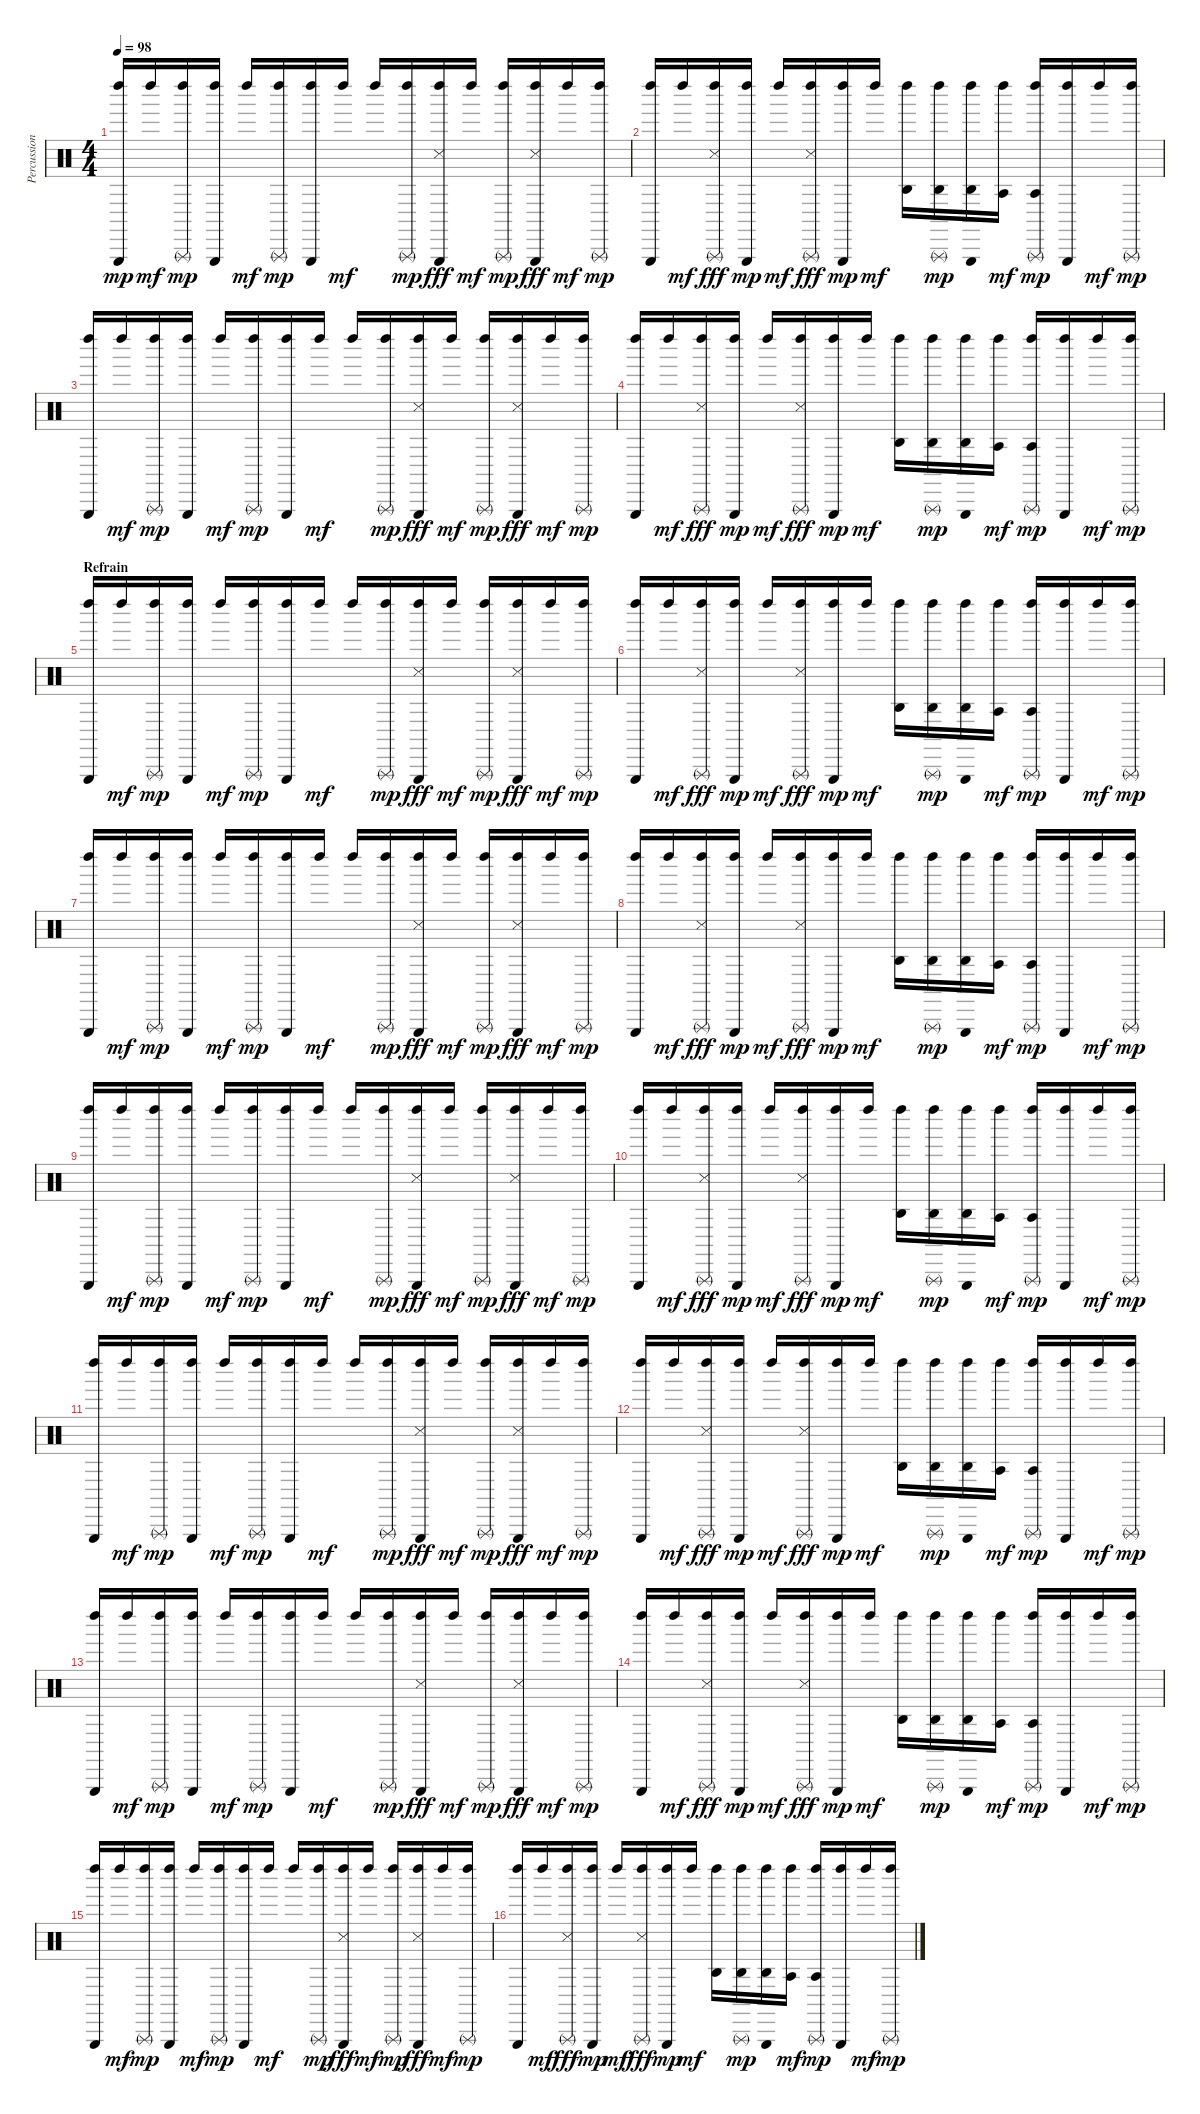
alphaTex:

\track ("Percussions" "Percussion") {instrument percussion}
\staff {score}
\articulation defaults
\ts (4 4)
\tempo 98
\clef neutral
\ks c
("Left Maraca (hit)" "Triangle (hit)").16{dy mp} "Left Maraca (hit)".16{dy mf} ("Left Maraca (hit)" "Triangle (rnute)").16{dy mp} ("Left Maraca (hit)" "Triangle (hit)").16 "Left Maraca (hit)".16{dy mf} ("Left Maraca (hit)" "Triangle (rnute)").16{dy mp} ("Left Maraca (hit)" "Triangle (hit)").16 "Left Maraca (hit)".16{dy mf} "Left Maraca (hit)".16 ("Left Maraca (hit)" "Triangle (rnute)").16{dy mp} ("Left Maraca (hit)" "Triangle (hit)" "Snare (side stick) 3").16{dy fff} "Left Maraca (hit)".16{dy mf} ("Left Maraca (hit)" "Triangle (rnute)").16{dy mp} ("Left Maraca (hit)" "Triangle (hit)" "Snare (side stick) 3").16{dy fff} "Left Maraca (hit)".16{dy mf} ("Left Maraca (hit)" "Triangle (rnute)").16{dy mp} |
("Left Maraca (hit)" "Triangle (hit)").16 "Left Maraca (hit)".16{dy mf} ("Left Maraca (hit)" "Triangle (rnute)" "Snare (side stick) 3").16{dy fff} ("Left Maraca (hit)" "Triangle (hit)").16{dy mp} "Left Maraca (hit)".16{dy mf} ("Left Maraca (hit)" "Triangle (rnute)" "Snare (side stick) 3").16{dy fff} ("Left Maraca (hit)" "Triangle (hit)").16{dy mp} "Left Maraca (hit)".16{dy mf} ("Left Maraca (hit)" "Agogo high (hit)").16 ("Left Maraca (hit)" "Triangle (rnute)" "Agogo high (hit)").16{dy mp} ("Left Maraca (hit)" "Triangle (hit)" "Agogo high (hit)").16 ("Left Maraca (hit)" "Agogo tow (hit)").16{dy mf} ("Left Maraca (hit)" "Triangle (rnute)" "Agogo tow (hit)").16{dy mp} ("Left Maraca (hit)" "Triangle (hit)").16 "Left Maraca (hit)".16{dy mf} ("Left Maraca (hit)" "Triangle (rnute)").16{dy mp} |
("Left Maraca (hit)" "Triangle (hit)").16 "Left Maraca (hit)".16{dy mf} ("Left Maraca (hit)" "Triangle (rnute)").16{dy mp} ("Left Maraca (hit)" "Triangle (hit)").16 "Left Maraca (hit)".16{dy mf} ("Left Maraca (hit)" "Triangle (rnute)").16{dy mp} ("Left Maraca (hit)" "Triangle (hit)").16 "Left Maraca (hit)".16{dy mf} "Left Maraca (hit)".16 ("Left Maraca (hit)" "Triangle (rnute)").16{dy mp} ("Left Maraca (hit)" "Triangle (hit)" "Snare (side stick) 3").16{dy fff} "Left Maraca (hit)".16{dy mf} ("Left Maraca (hit)" "Triangle (rnute)").16{dy mp} ("Left Maraca (hit)" "Triangle (hit)" "Snare (side stick) 3").16{dy fff} "Left Maraca (hit)".16{dy mf} ("Left Maraca (hit)" "Triangle (rnute)").16{dy mp} |
("Left Maraca (hit)" "Triangle (hit)").16 "Left Maraca (hit)".16{dy mf} ("Left Maraca (hit)" "Triangle (rnute)" "Snare (side stick) 3").16{dy fff} ("Left Maraca (hit)" "Triangle (hit)").16{dy mp} "Left Maraca (hit)".16{dy mf} ("Left Maraca (hit)" "Triangle (rnute)" "Snare (side stick) 3").16{dy fff} ("Left Maraca (hit)" "Triangle (hit)").16{dy mp} "Left Maraca (hit)".16{dy mf} ("Left Maraca (hit)" "Agogo high (hit)").16 ("Left Maraca (hit)" "Triangle (rnute)" "Agogo high (hit)").16{dy mp} ("Left Maraca (hit)" "Triangle (hit)" "Agogo high (hit)").16 ("Left Maraca (hit)" "Agogo tow (hit)").16{dy mf} ("Left Maraca (hit)" "Triangle (rnute)" "Agogo tow (hit)").16{dy mp} ("Left Maraca (hit)" "Triangle (hit)").16 "Left Maraca (hit)".16{dy mf} ("Left Maraca (hit)" "Triangle (rnute)").16{dy mp} |
\section ("" "Refrain")
("Left Maraca (hit)" "Triangle (hit)").16 "Left Maraca (hit)".16{dy mf} ("Left Maraca (hit)" "Triangle (rnute)").16{dy mp} ("Left Maraca (hit)" "Triangle (hit)").16 "Left Maraca (hit)".16{dy mf} ("Left Maraca (hit)" "Triangle (rnute)").16{dy mp} ("Left Maraca (hit)" "Triangle (hit)").16 "Left Maraca (hit)".16{dy mf} "Left Maraca (hit)".16 ("Left Maraca (hit)" "Triangle (rnute)").16{dy mp} ("Left Maraca (hit)" "Triangle (hit)" "Snare (side stick) 3").16{dy fff} "Left Maraca (hit)".16{dy mf} ("Left Maraca (hit)" "Triangle (rnute)").16{dy mp} ("Left Maraca (hit)" "Triangle (hit)" "Snare (side stick) 3").16{dy fff} "Left Maraca (hit)".16{dy mf} ("Left Maraca (hit)" "Triangle (rnute)").16{dy mp} |
("Left Maraca (hit)" "Triangle (hit)").16 "Left Maraca (hit)".16{dy mf} ("Left Maraca (hit)" "Triangle (rnute)" "Snare (side stick) 3").16{dy fff} ("Left Maraca (hit)" "Triangle (hit)").16{dy mp} "Left Maraca (hit)".16{dy mf} ("Left Maraca (hit)" "Triangle (rnute)" "Snare (side stick) 3").16{dy fff} ("Left Maraca (hit)" "Triangle (hit)").16{dy mp} "Left Maraca (hit)".16{dy mf} ("Left Maraca (hit)" "Agogo high (hit)").16 ("Left Maraca (hit)" "Triangle (rnute)" "Agogo high (hit)").16{dy mp} ("Left Maraca (hit)" "Triangle (hit)" "Agogo high (hit)").16 ("Left Maraca (hit)" "Agogo tow (hit)").16{dy mf} ("Left Maraca (hit)" "Triangle (rnute)" "Agogo tow (hit)").16{dy mp} ("Left Maraca (hit)" "Triangle (hit)").16 "Left Maraca (hit)".16{dy mf} ("Left Maraca (hit)" "Triangle (rnute)").16{dy mp} |
("Left Maraca (hit)" "Triangle (hit)").16 "Left Maraca (hit)".16{dy mf} ("Left Maraca (hit)" "Triangle (rnute)").16{dy mp} ("Left Maraca (hit)" "Triangle (hit)").16 "Left Maraca (hit)".16{dy mf} ("Left Maraca (hit)" "Triangle (rnute)").16{dy mp} ("Left Maraca (hit)" "Triangle (hit)").16 "Left Maraca (hit)".16{dy mf} "Left Maraca (hit)".16 ("Left Maraca (hit)" "Triangle (rnute)").16{dy mp} ("Left Maraca (hit)" "Triangle (hit)" "Snare (side stick) 3").16{dy fff} "Left Maraca (hit)".16{dy mf} ("Left Maraca (hit)" "Triangle (rnute)").16{dy mp} ("Left Maraca (hit)" "Triangle (hit)" "Snare (side stick) 3").16{dy fff} "Left Maraca (hit)".16{dy mf} ("Left Maraca (hit)" "Triangle (rnute)").16{dy mp} |
("Left Maraca (hit)" "Triangle (hit)").16 "Left Maraca (hit)".16{dy mf} ("Left Maraca (hit)" "Triangle (rnute)" "Snare (side stick) 3").16{dy fff} ("Left Maraca (hit)" "Triangle (hit)").16{dy mp} "Left Maraca (hit)".16{dy mf} ("Left Maraca (hit)" "Triangle (rnute)" "Snare (side stick) 3").16{dy fff} ("Left Maraca (hit)" "Triangle (hit)").16{dy mp} "Left Maraca (hit)".16{dy mf} ("Left Maraca (hit)" "Agogo high (hit)").16 ("Left Maraca (hit)" "Triangle (rnute)" "Agogo high (hit)").16{dy mp} ("Left Maraca (hit)" "Triangle (hit)" "Agogo high (hit)").16 ("Left Maraca (hit)" "Agogo tow (hit)").16{dy mf} ("Left Maraca (hit)" "Triangle (rnute)" "Agogo tow (hit)").16{dy mp} ("Left Maraca (hit)" "Triangle (hit)").16 "Left Maraca (hit)".16{dy mf} ("Left Maraca (hit)" "Triangle (rnute)").16{dy mp} |
("Left Maraca (hit)" "Triangle (hit)").16 "Left Maraca (hit)".16{dy mf} ("Left Maraca (hit)" "Triangle (rnute)").16{dy mp} ("Left Maraca (hit)" "Triangle (hit)").16 "Left Maraca (hit)".16{dy mf} ("Left Maraca (hit)" "Triangle (rnute)").16{dy mp} ("Left Maraca (hit)" "Triangle (hit)").16 "Left Maraca (hit)".16{dy mf} "Left Maraca (hit)".16 ("Left Maraca (hit)" "Triangle (rnute)").16{dy mp} ("Left Maraca (hit)" "Triangle (hit)" "Snare (side stick) 3").16{dy fff} "Left Maraca (hit)".16{dy mf} ("Left Maraca (hit)" "Triangle (rnute)").16{dy mp} ("Left Maraca (hit)" "Triangle (hit)" "Snare (side stick) 3").16{dy fff} "Left Maraca (hit)".16{dy mf} ("Left Maraca (hit)" "Triangle (rnute)").16{dy mp} |
("Left Maraca (hit)" "Triangle (hit)").16 "Left Maraca (hit)".16{dy mf} ("Left Maraca (hit)" "Triangle (rnute)" "Snare (side stick) 3").16{dy fff} ("Left Maraca (hit)" "Triangle (hit)").16{dy mp} "Left Maraca (hit)".16{dy mf} ("Left Maraca (hit)" "Triangle (rnute)" "Snare (side stick) 3").16{dy fff} ("Left Maraca (hit)" "Triangle (hit)").16{dy mp} "Left Maraca (hit)".16{dy mf} ("Left Maraca (hit)" "Agogo high (hit)").16 ("Left Maraca (hit)" "Triangle (rnute)" "Agogo high (hit)").16{dy mp} ("Left Maraca (hit)" "Triangle (hit)" "Agogo high (hit)").16 ("Left Maraca (hit)" "Agogo tow (hit)").16{dy mf} ("Left Maraca (hit)" "Triangle (rnute)" "Agogo tow (hit)").16{dy mp} ("Left Maraca (hit)" "Triangle (hit)").16 "Left Maraca (hit)".16{dy mf} ("Left Maraca (hit)" "Triangle (rnute)").16{dy mp} |
("Left Maraca (hit)" "Triangle (hit)").16 "Left Maraca (hit)".16{dy mf} ("Left Maraca (hit)" "Triangle (rnute)").16{dy mp} ("Left Maraca (hit)" "Triangle (hit)").16 "Left Maraca (hit)".16{dy mf} ("Left Maraca (hit)" "Triangle (rnute)").16{dy mp} ("Left Maraca (hit)" "Triangle (hit)").16 "Left Maraca (hit)".16{dy mf} "Left Maraca (hit)".16 ("Left Maraca (hit)" "Triangle (rnute)").16{dy mp} ("Left Maraca (hit)" "Triangle (hit)" "Snare (side stick) 3").16{dy fff} "Left Maraca (hit)".16{dy mf} ("Left Maraca (hit)" "Triangle (rnute)").16{dy mp} ("Left Maraca (hit)" "Triangle (hit)" "Snare (side stick) 3").16{dy fff} "Left Maraca (hit)".16{dy mf} ("Left Maraca (hit)" "Triangle (rnute)").16{dy mp} |
("Left Maraca (hit)" "Triangle (hit)").16 "Left Maraca (hit)".16{dy mf} ("Left Maraca (hit)" "Triangle (rnute)" "Snare (side stick) 3").16{dy fff} ("Left Maraca (hit)" "Triangle (hit)").16{dy mp} "Left Maraca (hit)".16{dy mf} ("Left Maraca (hit)" "Triangle (rnute)" "Snare (side stick) 3").16{dy fff} ("Left Maraca (hit)" "Triangle (hit)").16{dy mp} "Left Maraca (hit)".16{dy mf} ("Left Maraca (hit)" "Agogo high (hit)").16 ("Left Maraca (hit)" "Triangle (rnute)" "Agogo high (hit)").16{dy mp} ("Left Maraca (hit)" "Triangle (hit)" "Agogo high (hit)").16 ("Left Maraca (hit)" "Agogo tow (hit)").16{dy mf} ("Left Maraca (hit)" "Triangle (rnute)" "Agogo tow (hit)").16{dy mp} ("Left Maraca (hit)" "Triangle (hit)").16 "Left Maraca (hit)".16{dy mf} ("Left Maraca (hit)" "Triangle (rnute)").16{dy mp} |
("Left Maraca (hit)" "Triangle (hit)").16 "Left Maraca (hit)".16{dy mf} ("Left Maraca (hit)" "Triangle (rnute)").16{dy mp} ("Left Maraca (hit)" "Triangle (hit)").16 "Left Maraca (hit)".16{dy mf} ("Left Maraca (hit)" "Triangle (rnute)").16{dy mp} ("Left Maraca (hit)" "Triangle (hit)").16 "Left Maraca (hit)".16{dy mf} "Left Maraca (hit)".16 ("Left Maraca (hit)" "Triangle (rnute)").16{dy mp} ("Left Maraca (hit)" "Triangle (hit)" "Snare (side stick) 3").16{dy fff} "Left Maraca (hit)".16{dy mf} ("Left Maraca (hit)" "Triangle (rnute)").16{dy mp} ("Left Maraca (hit)" "Triangle (hit)" "Snare (side stick) 3").16{dy fff} "Left Maraca (hit)".16{dy mf} ("Left Maraca (hit)" "Triangle (rnute)").16{dy mp} |
("Left Maraca (hit)" "Triangle (hit)").16 "Left Maraca (hit)".16{dy mf} ("Left Maraca (hit)" "Triangle (rnute)" "Snare (side stick) 3").16{dy fff} ("Left Maraca (hit)" "Triangle (hit)").16{dy mp} "Left Maraca (hit)".16{dy mf} ("Left Maraca (hit)" "Triangle (rnute)" "Snare (side stick) 3").16{dy fff} ("Left Maraca (hit)" "Triangle (hit)").16{dy mp} "Left Maraca (hit)".16{dy mf} ("Left Maraca (hit)" "Agogo high (hit)").16 ("Left Maraca (hit)" "Triangle (rnute)" "Agogo high (hit)").16{dy mp} ("Left Maraca (hit)" "Triangle (hit)" "Agogo high (hit)").16 ("Left Maraca (hit)" "Agogo tow (hit)").16{dy mf} ("Left Maraca (hit)" "Triangle (rnute)" "Agogo tow (hit)").16{dy mp} ("Left Maraca (hit)" "Triangle (hit)").16 "Left Maraca (hit)".16{dy mf} ("Left Maraca (hit)" "Triangle (rnute)").16{dy mp} |
("Left Maraca (hit)" "Triangle (hit)").16 "Left Maraca (hit)".16{dy mf} ("Left Maraca (hit)" "Triangle (rnute)").16{dy mp} ("Left Maraca (hit)" "Triangle (hit)").16 "Left Maraca (hit)".16{dy mf} ("Left Maraca (hit)" "Triangle (rnute)").16{dy mp} ("Left Maraca (hit)" "Triangle (hit)").16 "Left Maraca (hit)".16{dy mf} "Left Maraca (hit)".16 ("Left Maraca (hit)" "Triangle (rnute)").16{dy mp} ("Left Maraca (hit)" "Triangle (hit)" "Snare (side stick) 3").16{dy fff} "Left Maraca (hit)".16{dy mf} ("Left Maraca (hit)" "Triangle (rnute)").16{dy mp} ("Left Maraca (hit)" "Triangle (hit)" "Snare (side stick) 3").16{dy fff} "Left Maraca (hit)".16{dy mf} ("Left Maraca (hit)" "Triangle (rnute)").16{dy mp} |
("Left Maraca (hit)" "Triangle (hit)").16 "Left Maraca (hit)".16{dy mf} ("Left Maraca (hit)" "Triangle (rnute)" "Snare (side stick) 3").16{dy fff} ("Left Maraca (hit)" "Triangle (hit)").16{dy mp} "Left Maraca (hit)".16{dy mf} ("Left Maraca (hit)" "Triangle (rnute)" "Snare (side stick) 3").16{dy fff} ("Left Maraca (hit)" "Triangle (hit)").16{dy mp} "Left Maraca (hit)".16{dy mf} ("Left Maraca (hit)" "Agogo high (hit)").16 ("Left Maraca (hit)" "Triangle (rnute)" "Agogo high (hit)").16{dy mp} ("Left Maraca (hit)" "Triangle (hit)" "Agogo high (hit)").16 ("Left Maraca (hit)" "Agogo tow (hit)").16{dy mf} ("Left Maraca (hit)" "Triangle (rnute)" "Agogo tow (hit)").16{dy mp} ("Left Maraca (hit)" "Triangle (hit)").16 "Left Maraca (hit)".16{dy mf} ("Left Maraca (hit)" "Triangle (rnute)").16{dy mp}
